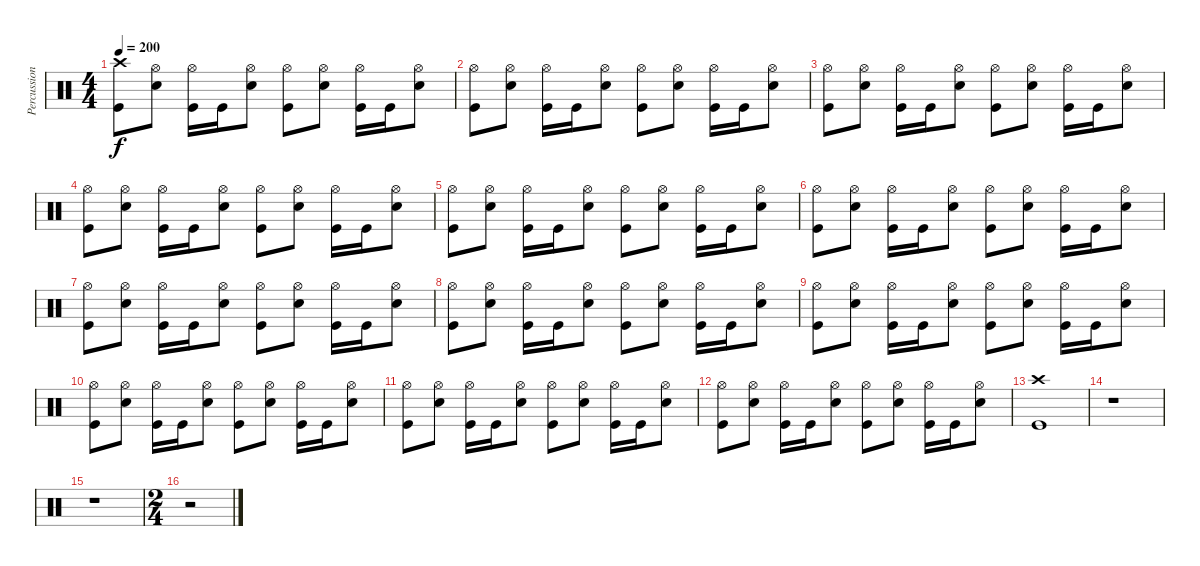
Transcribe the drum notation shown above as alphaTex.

\track ("Percussion" "Percussion") {instrument percussion}
\staff {score}
\articulation defaults
\ts (4 4)
\tempo 200
\clef neutral
\ks c
("Crash high (hit)" "Kick (hit)").8{dy f} ("Hi-Hat (open)" "Electric Snare (hit)").8 ("Hi-Hat (open)" "Kick (hit)").16 "Kick (hit)".16 ("Hi-Hat (open)" "Electric Snare (hit)").8 ("Hi-Hat (open)" "Kick (hit)").8 ("Hi-Hat (open)" "Electric Snare (hit)").8 ("Hi-Hat (open)" "Kick (hit)").16 "Kick (hit)".16 ("Hi-Hat (open)" "Electric Snare (hit)").8 |
("Hi-Hat (open)" "Kick (hit)").8 ("Hi-Hat (open)" "Electric Snare (hit)").8 ("Hi-Hat (open)" "Kick (hit)").16 "Kick (hit)".16 ("Hi-Hat (open)" "Electric Snare (hit)").8 ("Hi-Hat (open)" "Kick (hit)").8 ("Hi-Hat (open)" "Electric Snare (hit)").8 ("Hi-Hat (open)" "Kick (hit)").16 "Kick (hit)".16 ("Hi-Hat (open)" "Electric Snare (hit)").8 |
("Hi-Hat (open)" "Kick (hit)").8 ("Hi-Hat (open)" "Electric Snare (hit)").8 ("Hi-Hat (open)" "Kick (hit)").16 "Kick (hit)".16 ("Hi-Hat (open)" "Electric Snare (hit)").8 ("Hi-Hat (open)" "Kick (hit)").8 ("Hi-Hat (open)" "Electric Snare (hit)").8 ("Hi-Hat (open)" "Kick (hit)").16 "Kick (hit)".16 ("Hi-Hat (open)" "Electric Snare (hit)").8 |
("Hi-Hat (open)" "Kick (hit)").8 ("Hi-Hat (open)" "Electric Snare (hit)").8 ("Hi-Hat (open)" "Kick (hit)").16 "Kick (hit)".16 ("Hi-Hat (open)" "Electric Snare (hit)").8 ("Hi-Hat (open)" "Kick (hit)").8 ("Hi-Hat (open)" "Electric Snare (hit)").8 ("Hi-Hat (open)" "Kick (hit)").16 "Kick (hit)".16 ("Hi-Hat (open)" "Electric Snare (hit)").8 |
("Hi-Hat (open)" "Kick (hit)").8 ("Hi-Hat (open)" "Electric Snare (hit)").8 ("Hi-Hat (open)" "Kick (hit)").16 "Kick (hit)".16 ("Hi-Hat (open)" "Electric Snare (hit)").8 ("Hi-Hat (open)" "Kick (hit)").8 ("Hi-Hat (open)" "Electric Snare (hit)").8 ("Hi-Hat (open)" "Kick (hit)").16 "Kick (hit)".16 ("Hi-Hat (open)" "Electric Snare (hit)").8 |
("Hi-Hat (open)" "Kick (hit)").8 ("Hi-Hat (open)" "Electric Snare (hit)").8 ("Hi-Hat (open)" "Kick (hit)").16 "Kick (hit)".16 ("Hi-Hat (open)" "Electric Snare (hit)").8 ("Hi-Hat (open)" "Kick (hit)").8 ("Hi-Hat (open)" "Electric Snare (hit)").8 ("Hi-Hat (open)" "Kick (hit)").16 "Kick (hit)".16 ("Hi-Hat (open)" "Electric Snare (hit)").8 |
("Hi-Hat (open)" "Kick (hit)").8 ("Hi-Hat (open)" "Electric Snare (hit)").8 ("Hi-Hat (open)" "Kick (hit)").16 "Kick (hit)".16 ("Hi-Hat (open)" "Electric Snare (hit)").8 ("Hi-Hat (open)" "Kick (hit)").8 ("Hi-Hat (open)" "Electric Snare (hit)").8 ("Hi-Hat (open)" "Kick (hit)").16 "Kick (hit)".16 ("Hi-Hat (open)" "Electric Snare (hit)").8 |
("Hi-Hat (open)" "Kick (hit)").8 ("Hi-Hat (open)" "Electric Snare (hit)").8 ("Hi-Hat (open)" "Kick (hit)").16 "Kick (hit)".16 ("Hi-Hat (open)" "Electric Snare (hit)").8 ("Hi-Hat (open)" "Kick (hit)").8 ("Hi-Hat (open)" "Electric Snare (hit)").8 ("Hi-Hat (open)" "Kick (hit)").16 "Kick (hit)".16 ("Hi-Hat (open)" "Electric Snare (hit)").8 |
("Hi-Hat (open)" "Kick (hit)").8 ("Hi-Hat (open)" "Electric Snare (hit)").8 ("Hi-Hat (open)" "Kick (hit)").16 "Kick (hit)".16 ("Hi-Hat (open)" "Electric Snare (hit)").8 ("Hi-Hat (open)" "Kick (hit)").8 ("Hi-Hat (open)" "Electric Snare (hit)").8 ("Hi-Hat (open)" "Kick (hit)").16 "Kick (hit)".16 ("Hi-Hat (open)" "Electric Snare (hit)").8 |
("Hi-Hat (open)" "Kick (hit)").8 ("Hi-Hat (open)" "Electric Snare (hit)").8 ("Hi-Hat (open)" "Kick (hit)").16 "Kick (hit)".16 ("Hi-Hat (open)" "Electric Snare (hit)").8 ("Hi-Hat (open)" "Kick (hit)").8 ("Hi-Hat (open)" "Electric Snare (hit)").8 ("Hi-Hat (open)" "Kick (hit)").16 "Kick (hit)".16 ("Hi-Hat (open)" "Electric Snare (hit)").8 |
("Hi-Hat (open)" "Kick (hit)").8 ("Hi-Hat (open)" "Electric Snare (hit)").8 ("Hi-Hat (open)" "Kick (hit)").16 "Kick (hit)".16 ("Hi-Hat (open)" "Electric Snare (hit)").8 ("Hi-Hat (open)" "Kick (hit)").8 ("Hi-Hat (open)" "Electric Snare (hit)").8 ("Hi-Hat (open)" "Kick (hit)").16 "Kick (hit)".16 ("Hi-Hat (open)" "Electric Snare (hit)").8 |
("Hi-Hat (open)" "Kick (hit)").8 ("Hi-Hat (open)" "Electric Snare (hit)").8 ("Hi-Hat (open)" "Kick (hit)").16 "Kick (hit)".16 ("Hi-Hat (open)" "Electric Snare (hit)").8 ("Hi-Hat (open)" "Kick (hit)").8 ("Hi-Hat (open)" "Electric Snare (hit)").8 ("Hi-Hat (open)" "Kick (hit)").16 "Kick (hit)".16 ("Hi-Hat (open)" "Electric Snare (hit)").8 |
("Crash high (hit)" "Kick (hit)").1 |
r.1 |
r.1 |
\ts (2 4)
r.2
